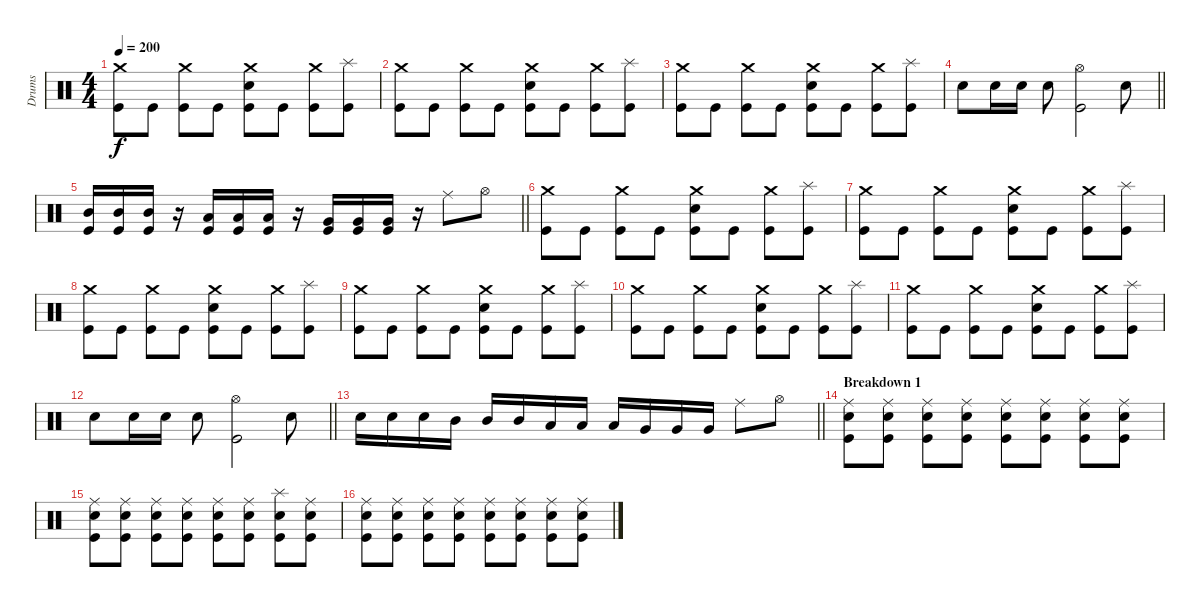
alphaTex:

\track ("Drums" "Drums") {instrument percussion}
\staff {score}
\articulation defaults
\ts (4 4)
\tempo 200
\clef neutral
\ks c
("Crash medium (hit)" "Kick (hit)").8{dy f} "Kick (hit)".8 ("Crash medium (hit)" "Kick (hit)").8 "Kick (hit)".8 ("Crash medium (hit)" "Snare (hit) 2" "Kick (hit)").8 "Kick (hit)".8 ("Crash medium (hit)" "Kick (hit)").8 ("Splash (hit)" "Kick (hit)").8 |
("Crash medium (hit)" "Kick (hit)").8 "Kick (hit)".8 ("Crash medium (hit)" "Kick (hit)").8 "Kick (hit)".8 ("Crash medium (hit)" "Snare (hit) 2" "Kick (hit)").8 "Kick (hit)".8 ("Crash medium (hit)" "Kick (hit)").8 ("Splash (hit)" "Kick (hit)").8 |
("Crash medium (hit)" "Kick (hit)").8 "Kick (hit)".8 ("Crash medium (hit)" "Kick (hit)").8 "Kick (hit)".8 ("Crash medium (hit)" "Snare (hit) 2" "Kick (hit)").8 "Kick (hit)".8 ("Crash medium (hit)" "Kick (hit)").8 ("Splash (hit)" "Kick (hit)").8 |
\barLineRight lightlight "Snare (hit) 2".8 "Snare (hit) 2".16 "Snare (hit) 2".16 "Snare (hit) 2".8
("Hi-Hat (open)" "Kick (hit)").2 "Snare (hit) 2".8 |
\barLineRight lightlight
("Mid Tom (hit)" "Kick (hit)").16 ("Mid Tom (hit)" "Kick (hit)").16 ("Mid Tom (hit)" "Kick (hit)").16 r.16 ("Low Tom (hit)" "Kick (hit)").16 ("Low Tom (hit)" "Kick (hit)").16 ("Low Tom (hit)" "Kick (hit)").16 r.16 ("Very Low Tom (hit)" "Kick (hit)").16 ("Very Low Tom (hit)" "Kick (hit)").16 ("Very Low Tom (hit)" "Kick (hit)").16 r.16 "Ride (middle)".8 "Hi-Hat (open)".8 |
("Crash medium (hit)" "Kick (hit)").8 "Kick (hit)".8 ("Crash medium (hit)" "Kick (hit)").8 "Kick (hit)".8 ("Crash medium (hit)" "Snare (hit) 2" "Kick (hit)").8 "Kick (hit)".8 ("Crash medium (hit)" "Kick (hit)").8 ("Splash (hit)" "Kick (hit)").8 |
("Crash medium (hit)" "Kick (hit)").8 "Kick (hit)".8 ("Crash medium (hit)" "Kick (hit)").8 "Kick (hit)".8 ("Crash medium (hit)" "Snare (hit) 2" "Kick (hit)").8 "Kick (hit)".8 ("Crash medium (hit)" "Kick (hit)").8 ("Splash (hit)" "Kick (hit)").8 |
("Crash medium (hit)" "Kick (hit)").8 "Kick (hit)".8 ("Crash medium (hit)" "Kick (hit)").8 "Kick (hit)".8 ("Crash medium (hit)" "Snare (hit) 2" "Kick (hit)").8 "Kick (hit)".8 ("Crash medium (hit)" "Kick (hit)").8 ("Splash (hit)" "Kick (hit)").8 |
("Crash medium (hit)" "Kick (hit)").8 "Kick (hit)".8 ("Crash medium (hit)" "Kick (hit)").8 "Kick (hit)".8 ("Crash medium (hit)" "Snare (hit) 2" "Kick (hit)").8 "Kick (hit)".8 ("Crash medium (hit)" "Kick (hit)").8 ("Splash (hit)" "Kick (hit)").8 |
("Crash medium (hit)" "Kick (hit)").8 "Kick (hit)".8 ("Crash medium (hit)" "Kick (hit)").8 "Kick (hit)".8 ("Crash medium (hit)" "Snare (hit) 2" "Kick (hit)").8 "Kick (hit)".8 ("Crash medium (hit)" "Kick (hit)").8 ("Splash (hit)" "Kick (hit)").8 |
("Crash medium (hit)" "Kick (hit)").8 "Kick (hit)".8 ("Crash medium (hit)" "Kick (hit)").8 "Kick (hit)".8 ("Crash medium (hit)" "Snare (hit) 2" "Kick (hit)").8 "Kick (hit)".8 ("Crash medium (hit)" "Kick (hit)").8 ("Splash (hit)" "Kick (hit)").8 |
\barLineRight lightlight "Snare (hit) 2".8 "Snare (hit) 2".16 "Snare (hit) 2".16 "Snare (hit) 2".8
("Hi-Hat (open)" "Kick (hit)").2 "Snare (hit) 2".8 |
\barLineRight lightlight "Snare (hit) 2".16 "Snare (hit) 2".16 "Snare (hit) 2".16 "Mid Tom (hit)".16 "Mid Tom (hit)".16 "Mid Tom (hit)".16 "Low Tom (hit)".16 "Low Tom (hit)".16 "Low Tom (hit)".16 "Very Low Tom (hit)".16 "Very Low Tom (hit)".16 "Very Low Tom (hit)".16 "Ride (middle)".8 "Hi-Hat (open)".8
|
\section ("" "Breakdown 1")
("Ride (middle)" "Snare (hit) 2" "Kick (hit)").8 ("Ride (middle)" "Snare (hit) 2" "Kick (hit)").8 ("Ride (middle)" "Snare (hit) 2" "Kick (hit)").8 ("Ride (middle)" "Snare (hit) 2" "Kick (hit)").8 ("Ride (middle)" "Snare (hit) 2" "Kick (hit)").8 ("Ride (middle)" "Snare (hit) 2" "Kick (hit)").8 ("Ride (middle)" "Snare (hit) 2" "Kick (hit)").8 ("Ride (middle)" "Snare (hit) 2" "Kick (hit)").8 |
("Ride (middle)" "Snare (hit) 2" "Kick (hit)").8 ("Ride (middle)" "Snare (hit) 2" "Kick (hit)").8 ("Ride (middle)" "Snare (hit) 2" "Kick (hit)").8 ("Ride (middle)" "Snare (hit) 2" "Kick (hit)").8 ("Ride (middle)" "Snare (hit) 2" "Kick (hit)").8 ("Ride (middle)" "Snare (hit) 2" "Kick (hit)").8 ("Splash (hit)" "Snare (hit) 2" "Kick (hit)").8 ("Ride (middle)" "Snare (hit) 2" "Kick (hit)").8 |
("Ride (middle)" "Snare (hit) 2" "Kick (hit)").8 ("Ride (middle)" "Snare (hit) 2" "Kick (hit)").8 ("Ride (middle)" "Snare (hit) 2" "Kick (hit)").8 ("Ride (middle)" "Snare (hit) 2" "Kick (hit)").8 ("Ride (middle)" "Snare (hit) 2" "Kick (hit)").8 ("Ride (middle)" "Snare (hit) 2" "Kick (hit)").8 ("Ride (middle)" "Snare (hit) 2" "Kick (hit)").8 ("Ride (middle)" "Snare (hit) 2" "Kick (hit)").8
